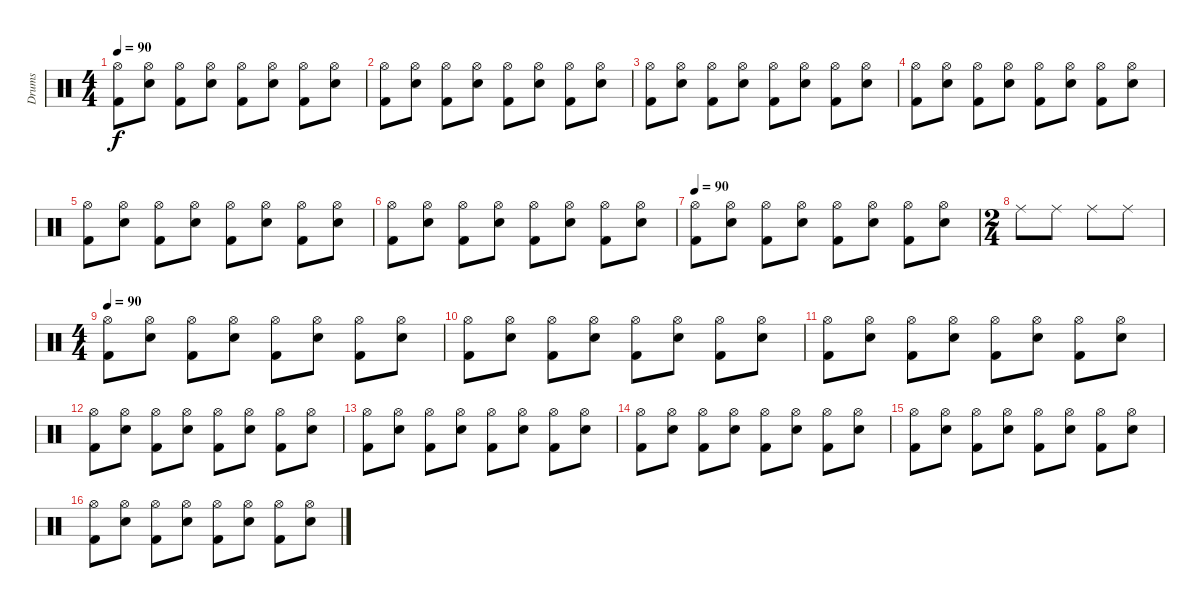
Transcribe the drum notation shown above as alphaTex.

\track ("Drums" "Drums") {instrument percussion}
\staff {score}
\articulation defaults
\ts (4 4)
\tempo 90
\clef neutral
\ks c
("Hi-Hat (open)" "Kick (hit) 2").8{dy f} ("Hi-Hat (open)" "Electric Snare (hit)").8 ("Hi-Hat (open)" "Kick (hit) 2").8 ("Hi-Hat (open)" "Electric Snare (hit)").8 ("Hi-Hat (open)" "Kick (hit) 2").8 ("Hi-Hat (open)" "Electric Snare (hit)").8 ("Hi-Hat (open)" "Kick (hit) 2").8 ("Hi-Hat (open)" "Electric Snare (hit)").8 |
("Hi-Hat (open)" "Kick (hit) 2").8 ("Hi-Hat (open)" "Electric Snare (hit)").8 ("Hi-Hat (open)" "Kick (hit) 2").8 ("Hi-Hat (open)" "Electric Snare (hit)").8 ("Hi-Hat (open)" "Kick (hit) 2").8 ("Hi-Hat (open)" "Electric Snare (hit)").8 ("Hi-Hat (open)" "Kick (hit) 2").8 ("Hi-Hat (open)" "Electric Snare (hit)").8 |
("Hi-Hat (open)" "Kick (hit) 2").8 ("Hi-Hat (open)" "Electric Snare (hit)").8 ("Hi-Hat (open)" "Kick (hit) 2").8 ("Hi-Hat (open)" "Electric Snare (hit)").8 ("Hi-Hat (open)" "Kick (hit) 2").8 ("Hi-Hat (open)" "Electric Snare (hit)").8 ("Hi-Hat (open)" "Kick (hit) 2").8 ("Hi-Hat (open)" "Electric Snare (hit)").8 |
("Hi-Hat (open)" "Kick (hit) 2").8 ("Hi-Hat (open)" "Electric Snare (hit)").8 ("Hi-Hat (open)" "Kick (hit) 2").8 ("Hi-Hat (open)" "Electric Snare (hit)").8 ("Hi-Hat (open)" "Kick (hit) 2").8 ("Hi-Hat (open)" "Electric Snare (hit)").8 ("Hi-Hat (open)" "Kick (hit) 2").8 ("Hi-Hat (open)" "Electric Snare (hit)").8 |
("Hi-Hat (open)" "Kick (hit) 2").8 ("Hi-Hat (open)" "Electric Snare (hit)").8 ("Hi-Hat (open)" "Kick (hit) 2").8 ("Hi-Hat (open)" "Electric Snare (hit)").8 ("Hi-Hat (open)" "Kick (hit) 2").8 ("Hi-Hat (open)" "Electric Snare (hit)").8 ("Hi-Hat (open)" "Kick (hit) 2").8 ("Hi-Hat (open)" "Electric Snare (hit)").8 |
("Hi-Hat (open)" "Kick (hit) 2").8 ("Hi-Hat (open)" "Electric Snare (hit)").8 ("Hi-Hat (open)" "Kick (hit) 2").8 ("Hi-Hat (open)" "Electric Snare (hit)").8 ("Hi-Hat (open)" "Kick (hit) 2").8 ("Hi-Hat (open)" "Electric Snare (hit)").8 ("Hi-Hat (open)" "Kick (hit) 2").8 ("Hi-Hat (open)" "Electric Snare (hit)").8 |
\tempo 90
("Hi-Hat (open)" "Kick (hit) 2").8 ("Hi-Hat (open)" "Electric Snare (hit)").8 ("Hi-Hat (open)" "Kick (hit) 2").8 ("Hi-Hat (open)" "Electric Snare (hit)").8 ("Hi-Hat (open)" "Kick (hit) 2").8 ("Hi-Hat (open)" "Electric Snare (hit)").8 ("Hi-Hat (open)" "Kick (hit) 2").8 ("Hi-Hat (open)" "Electric Snare (hit)").8 |
\ts (2 4)
"Ride (middle)".8 "Ride (middle)".8 "Ride (middle)".8 "Ride (middle)".8 |
\ts (4 4)
\tempo 90
("Hi-Hat (open)" "Kick (hit) 2").8 ("Hi-Hat (open)" "Electric Snare (hit)").8 ("Hi-Hat (open)" "Kick (hit) 2").8 ("Hi-Hat (open)" "Electric Snare (hit)").8 ("Hi-Hat (open)" "Kick (hit) 2").8 ("Hi-Hat (open)" "Electric Snare (hit)").8 ("Hi-Hat (open)" "Kick (hit) 2").8 ("Hi-Hat (open)" "Electric Snare (hit)").8 |
("Hi-Hat (open)" "Kick (hit) 2").8 ("Hi-Hat (open)" "Electric Snare (hit)").8 ("Hi-Hat (open)" "Kick (hit) 2").8 ("Hi-Hat (open)" "Electric Snare (hit)").8 ("Hi-Hat (open)" "Kick (hit) 2").8 ("Hi-Hat (open)" "Electric Snare (hit)").8 ("Hi-Hat (open)" "Kick (hit) 2").8 ("Hi-Hat (open)" "Electric Snare (hit)").8 |
("Hi-Hat (open)" "Kick (hit) 2").8 ("Hi-Hat (open)" "Electric Snare (hit)").8 ("Hi-Hat (open)" "Kick (hit) 2").8 ("Hi-Hat (open)" "Electric Snare (hit)").8 ("Hi-Hat (open)" "Kick (hit) 2").8 ("Hi-Hat (open)" "Electric Snare (hit)").8 ("Hi-Hat (open)" "Kick (hit) 2").8 ("Hi-Hat (open)" "Electric Snare (hit)").8 |
("Hi-Hat (open)" "Kick (hit) 2").8 ("Hi-Hat (open)" "Electric Snare (hit)").8 ("Hi-Hat (open)" "Kick (hit) 2").8 ("Hi-Hat (open)" "Electric Snare (hit)").8 ("Hi-Hat (open)" "Kick (hit) 2").8 ("Hi-Hat (open)" "Electric Snare (hit)").8 ("Hi-Hat (open)" "Kick (hit) 2").8 ("Hi-Hat (open)" "Electric Snare (hit)").8 |
("Hi-Hat (open)" "Kick (hit) 2").8 ("Hi-Hat (open)" "Electric Snare (hit)").8 ("Hi-Hat (open)" "Kick (hit) 2").8 ("Hi-Hat (open)" "Electric Snare (hit)").8 ("Hi-Hat (open)" "Kick (hit) 2").8 ("Hi-Hat (open)" "Electric Snare (hit)").8 ("Hi-Hat (open)" "Kick (hit) 2").8 ("Hi-Hat (open)" "Electric Snare (hit)").8 |
("Hi-Hat (open)" "Kick (hit) 2").8 ("Hi-Hat (open)" "Electric Snare (hit)").8 ("Hi-Hat (open)" "Kick (hit) 2").8 ("Hi-Hat (open)" "Electric Snare (hit)").8 ("Hi-Hat (open)" "Kick (hit) 2").8 ("Hi-Hat (open)" "Electric Snare (hit)").8 ("Hi-Hat (open)" "Kick (hit) 2").8 ("Hi-Hat (open)" "Electric Snare (hit)").8 |
("Hi-Hat (open)" "Kick (hit) 2").8 ("Hi-Hat (open)" "Electric Snare (hit)").8 ("Hi-Hat (open)" "Kick (hit) 2").8 ("Hi-Hat (open)" "Electric Snare (hit)").8 ("Hi-Hat (open)" "Kick (hit) 2").8 ("Hi-Hat (open)" "Electric Snare (hit)").8 ("Hi-Hat (open)" "Kick (hit) 2").8 ("Hi-Hat (open)" "Electric Snare (hit)").8 |
("Hi-Hat (open)" "Kick (hit) 2").8 ("Hi-Hat (open)" "Electric Snare (hit)").8 ("Hi-Hat (open)" "Kick (hit) 2").8 ("Hi-Hat (open)" "Electric Snare (hit)").8 ("Hi-Hat (open)" "Kick (hit) 2").8 ("Hi-Hat (open)" "Electric Snare (hit)").8 ("Hi-Hat (open)" "Kick (hit) 2").8 ("Hi-Hat (open)" "Electric Snare (hit)").8
